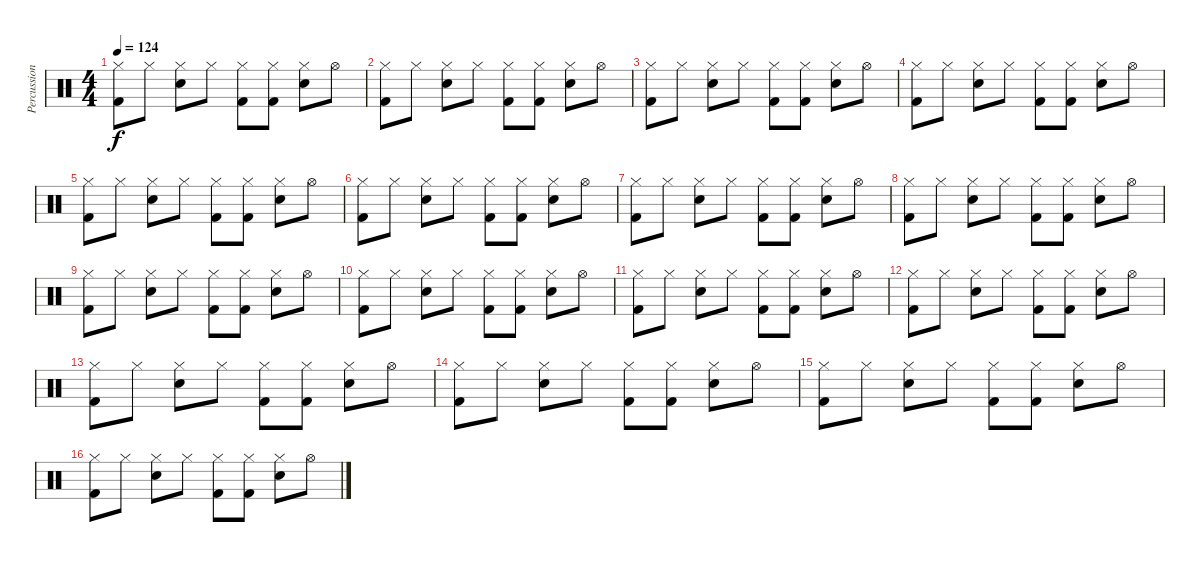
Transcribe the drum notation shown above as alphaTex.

\track ("Percussions" "Percussion") {instrument percussion}
\staff {score}
\articulation defaults
\ts (4 4)
\tempo 124
\clef neutral
\ks c
("Hi-Hat (closed)" "Kick (hit) 2").8{dy f} "Hi-Hat (closed)".8 ("Hi-Hat (closed)" "Snare (hit) 2").8 "Hi-Hat (closed)".8 ("Hi-Hat (closed)" "Kick (hit) 2").8 ("Hi-Hat (closed)" "Kick (hit) 2").8 ("Hi-Hat (closed)" "Snare (hit) 2").8 "Hi-Hat (open)".8 |
("Hi-Hat (closed)" "Kick (hit) 2").8 "Hi-Hat (closed)".8 ("Hi-Hat (closed)" "Snare (hit) 2").8 "Hi-Hat (closed)".8 ("Hi-Hat (closed)" "Kick (hit) 2").8 ("Hi-Hat (closed)" "Kick (hit) 2").8 ("Hi-Hat (closed)" "Snare (hit) 2").8 "Hi-Hat (open)".8 |
("Hi-Hat (closed)" "Kick (hit) 2").8 "Hi-Hat (closed)".8 ("Hi-Hat (closed)" "Snare (hit) 2").8 "Hi-Hat (closed)".8 ("Hi-Hat (closed)" "Kick (hit) 2").8 ("Hi-Hat (closed)" "Kick (hit) 2").8 ("Hi-Hat (closed)" "Snare (hit) 2").8 "Hi-Hat (open)".8 |
("Hi-Hat (closed)" "Kick (hit) 2").8 "Hi-Hat (closed)".8 ("Hi-Hat (closed)" "Snare (hit) 2").8 "Hi-Hat (closed)".8 ("Hi-Hat (closed)" "Kick (hit) 2").8 ("Hi-Hat (closed)" "Kick (hit) 2").8 ("Hi-Hat (closed)" "Snare (hit) 2").8 "Hi-Hat (open)".8 |
("Hi-Hat (closed)" "Kick (hit) 2").8 "Hi-Hat (closed)".8 ("Hi-Hat (closed)" "Snare (hit) 2").8 "Hi-Hat (closed)".8 ("Hi-Hat (closed)" "Kick (hit) 2").8 ("Hi-Hat (closed)" "Kick (hit) 2").8 ("Hi-Hat (closed)" "Snare (hit) 2").8 "Hi-Hat (open)".8 |
("Hi-Hat (closed)" "Kick (hit) 2").8 "Hi-Hat (closed)".8 ("Hi-Hat (closed)" "Snare (hit) 2").8 "Hi-Hat (closed)".8 ("Hi-Hat (closed)" "Kick (hit) 2").8 ("Hi-Hat (closed)" "Kick (hit) 2").8 ("Hi-Hat (closed)" "Snare (hit) 2").8 "Hi-Hat (open)".8 |
("Hi-Hat (closed)" "Kick (hit) 2").8 "Hi-Hat (closed)".8 ("Hi-Hat (closed)" "Snare (hit) 2").8 "Hi-Hat (closed)".8 ("Hi-Hat (closed)" "Kick (hit) 2").8 ("Hi-Hat (closed)" "Kick (hit) 2").8 ("Hi-Hat (closed)" "Snare (hit) 2").8 "Hi-Hat (open)".8 |
("Hi-Hat (closed)" "Kick (hit) 2").8 "Hi-Hat (closed)".8 ("Hi-Hat (closed)" "Snare (hit) 2").8 "Hi-Hat (closed)".8 ("Hi-Hat (closed)" "Kick (hit) 2").8 ("Hi-Hat (closed)" "Kick (hit) 2").8 ("Hi-Hat (closed)" "Snare (hit) 2").8 "Hi-Hat (open)".8 |
("Hi-Hat (closed)" "Kick (hit) 2").8 "Hi-Hat (closed)".8 ("Hi-Hat (closed)" "Snare (hit) 2").8 "Hi-Hat (closed)".8 ("Hi-Hat (closed)" "Kick (hit) 2").8 ("Hi-Hat (closed)" "Kick (hit) 2").8 ("Hi-Hat (closed)" "Snare (hit) 2").8 "Hi-Hat (open)".8 |
("Hi-Hat (closed)" "Kick (hit) 2").8 "Hi-Hat (closed)".8 ("Hi-Hat (closed)" "Snare (hit) 2").8 "Hi-Hat (closed)".8 ("Hi-Hat (closed)" "Kick (hit) 2").8 ("Hi-Hat (closed)" "Kick (hit) 2").8 ("Hi-Hat (closed)" "Snare (hit) 2").8 "Hi-Hat (open)".8 |
("Hi-Hat (closed)" "Kick (hit) 2").8 "Hi-Hat (closed)".8 ("Hi-Hat (closed)" "Snare (hit) 2").8 "Hi-Hat (closed)".8 ("Hi-Hat (closed)" "Kick (hit) 2").8 ("Hi-Hat (closed)" "Kick (hit) 2").8 ("Hi-Hat (closed)" "Snare (hit) 2").8 "Hi-Hat (open)".8 |
("Hi-Hat (closed)" "Kick (hit) 2").8 "Hi-Hat (closed)".8 ("Hi-Hat (closed)" "Snare (hit) 2").8 "Hi-Hat (closed)".8 ("Hi-Hat (closed)" "Kick (hit) 2").8 ("Hi-Hat (closed)" "Kick (hit) 2").8 ("Hi-Hat (closed)" "Snare (hit) 2").8 "Hi-Hat (open)".8 |
("Hi-Hat (closed)" "Kick (hit) 2").8 "Hi-Hat (closed)".8 ("Hi-Hat (closed)" "Snare (hit) 2").8 "Hi-Hat (closed)".8 ("Hi-Hat (closed)" "Kick (hit) 2").8 ("Hi-Hat (closed)" "Kick (hit) 2").8 ("Hi-Hat (closed)" "Snare (hit) 2").8 "Hi-Hat (open)".8 |
("Hi-Hat (closed)" "Kick (hit) 2").8 "Hi-Hat (closed)".8 ("Hi-Hat (closed)" "Snare (hit) 2").8 "Hi-Hat (closed)".8 ("Hi-Hat (closed)" "Kick (hit) 2").8 ("Hi-Hat (closed)" "Kick (hit) 2").8 ("Hi-Hat (closed)" "Snare (hit) 2").8 "Hi-Hat (open)".8 |
("Hi-Hat (closed)" "Kick (hit) 2").8 "Hi-Hat (closed)".8 ("Hi-Hat (closed)" "Snare (hit) 2").8 "Hi-Hat (closed)".8 ("Hi-Hat (closed)" "Kick (hit) 2").8 ("Hi-Hat (closed)" "Kick (hit) 2").8 ("Hi-Hat (closed)" "Snare (hit) 2").8 "Hi-Hat (open)".8 |
("Hi-Hat (closed)" "Kick (hit) 2").8 "Hi-Hat (closed)".8 ("Hi-Hat (closed)" "Snare (hit) 2").8 "Hi-Hat (closed)".8 ("Hi-Hat (closed)" "Kick (hit) 2").8 ("Hi-Hat (closed)" "Kick (hit) 2").8 ("Hi-Hat (closed)" "Snare (hit) 2").8 "Hi-Hat (open)".8
